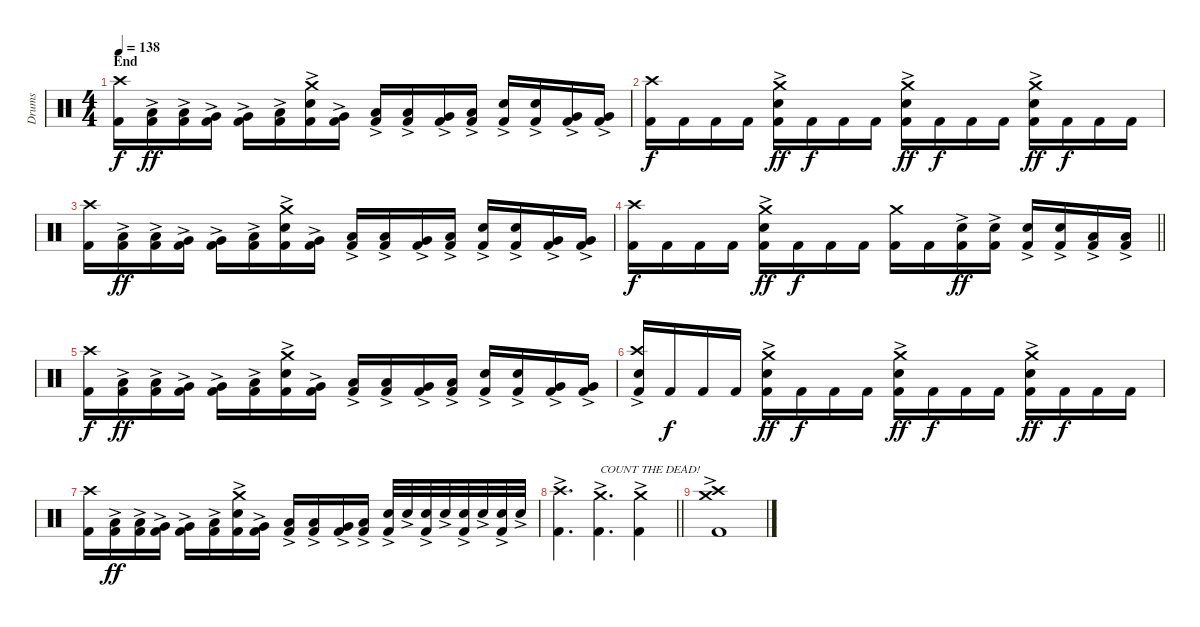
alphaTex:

\track ("Drums" "Drums") {instrument percussion}
\staff {score}
\articulation defaults
\ts (4 4)
\section ("" "End")
\tempo 138
\clef neutral
\ks c
("Kick (hit) 2" "Crash high (hit)").16{dy f} ("Kick (hit) 2" "Low Tom (hit)"{ac}).16{dy ff} ("Kick (hit) 2" "Low Tom (hit)"{ac}).16 ("Kick (hit) 2" "Very Low Tom (hit)"{ac}).16 ("Kick (hit) 2" "Very Low Tom (hit)"{ac}).16 ("Kick (hit) 2" "Low Floor Tom (hit)"{ac}).16 ("Kick (hit) 2" "Snare (hit) 2"{ac} "Crash medium (hit)").16 ("Kick (hit) 2" "Very Low Tom (hit)"{ac}).16 ("Kick (hit) 2" "Low Floor Tom (hit)"{ac}).16 ("Kick (hit) 2" "Low Floor Tom (hit)"{ac}).16 ("Kick (hit) 2" "Very Low Tom (hit)"{ac}).16 ("Kick (hit) 2" "Low Floor Tom (hit)"{ac}).16 ("Kick (hit) 2" "Snare (hit) 2"{ac}).16 ("Kick (hit) 2" "Snare (hit) 2"{ac}).16 ("Kick (hit) 2" "Very Low Tom (hit)"{ac}).16 ("Kick (hit) 2" "Very Low Tom (hit)"{ac}).16 |
("Kick (hit) 2" "Crash high (hit)").16{dy f} "Kick (hit) 2".16 "Kick (hit) 2".16 "Kick (hit) 2".16 ("Kick (hit) 2" "Snare (hit) 2"{ac} "Crash medium (hit)").16{dy ff} "Kick (hit) 2".16{dy f} "Kick (hit) 2".16 "Kick (hit) 2".16 ("Kick (hit) 2" "Snare (hit) 2"{ac} "Crash medium (hit)").16{dy ff} "Kick (hit) 2".16{dy f} "Kick (hit) 2".16 "Kick (hit) 2".16 ("Kick (hit) 2" "Snare (hit) 2"{ac} "Crash medium (hit)").16{dy ff} "Kick (hit) 2".16{dy f} "Kick (hit) 2".16 "Kick (hit) 2".16 |
("Kick (hit) 2" "Crash high (hit)").16 ("Kick (hit) 2" "Low Tom (hit)"{ac}).16{dy ff} ("Kick (hit) 2" "Low Tom (hit)"{ac}).16 ("Kick (hit) 2" "Very Low Tom (hit)"{ac}).16 ("Kick (hit) 2" "Very Low Tom (hit)"{ac}).16 ("Kick (hit) 2" "Low Floor Tom (hit)"{ac}).16 ("Kick (hit) 2" "Snare (hit) 2"{ac} "Crash medium (hit)").16 ("Kick (hit) 2" "Very Low Tom (hit)"{ac}).16 ("Kick (hit) 2" "Low Floor Tom (hit)"{ac}).16 ("Kick (hit) 2" "Low Floor Tom (hit)"{ac}).16 ("Kick (hit) 2" "Very Low Tom (hit)"{ac}).16 ("Kick (hit) 2" "Low Floor Tom (hit)"{ac}).16 ("Kick (hit) 2" "Snare (hit) 2"{ac}).16 ("Kick (hit) 2" "Snare (hit) 2"{ac}).16 ("Kick (hit) 2" "Very Low Tom (hit)"{ac}).16 ("Kick (hit) 2" "Very Low Tom (hit)"{ac}).16 |
\barLineRight lightlight
("Kick (hit) 2" "Crash high (hit)").16{dy f} "Kick (hit) 2".16 "Kick (hit) 2".16 "Kick (hit) 2".16 ("Kick (hit) 2" "Snare (hit) 2"{ac} "Crash medium (hit)").16{dy ff} "Kick (hit) 2".16{dy f} "Kick (hit) 2".16 "Kick (hit) 2".16 ("Kick (hit) 2" "Crash medium (hit)").16 "Kick (hit) 2".16 ("Kick (hit) 2" "Snare (hit) 2"{ac}).16{dy ff} ("Kick (hit) 2" "Snare (hit) 2"{ac}).16 ("Kick (hit) 2" "Snare (hit) 2"{ac}).16 ("Kick (hit) 2" "Snare (hit) 2"{ac}).16 ("Kick (hit) 2" "Low Tom (hit)"{ac}).16 ("Kick (hit) 2" "Low Tom (hit)"{ac}).16 |
\section ("" "")
("Kick (hit) 2" "Crash high (hit)").16{dy f} ("Kick (hit) 2" "Low Tom (hit)"{ac}).16{dy ff} ("Kick (hit) 2" "Low Tom (hit)"{ac}).16 ("Kick (hit) 2" "Very Low Tom (hit)"{ac}).16 ("Kick (hit) 2" "Very Low Tom (hit)"{ac}).16 ("Kick (hit) 2" "Low Floor Tom (hit)"{ac}).16 ("Kick (hit) 2" "Snare (hit) 2"{ac} "Crash medium (hit)").16 ("Kick (hit) 2" "Very Low Tom (hit)"{ac}).16 ("Kick (hit) 2" "Low Floor Tom (hit)"{ac}).16 ("Kick (hit) 2" "Low Floor Tom (hit)"{ac}).16 ("Kick (hit) 2" "Very Low Tom (hit)"{ac}).16 ("Kick (hit) 2" "Low Floor Tom (hit)"{ac}).16 ("Kick (hit) 2" "Snare (hit) 2"{ac}).16 ("Kick (hit) 2" "Snare (hit) 2"{ac}).16 ("Kick (hit) 2" "Very Low Tom (hit)"{ac}).16 ("Kick (hit) 2" "Very Low Tom (hit)"{ac}).16 |
("Kick (hit) 2" "Snare (hit) 2"{ac} "Crash high (hit)").16 "Kick (hit) 2".16{dy f} "Kick (hit) 2".16 "Kick (hit) 2".16 ("Kick (hit) 2" "Snare (hit) 2"{ac} "Crash medium (hit)").16{dy ff} "Kick (hit) 2".16{dy f} "Kick (hit) 2".16 "Kick (hit) 2".16 ("Kick (hit) 2" "Snare (hit) 2"{ac} "Crash medium (hit)").16{dy ff} "Kick (hit) 2".16{dy f} "Kick (hit) 2".16 "Kick (hit) 2".16 ("Kick (hit) 2" "Snare (hit) 2"{ac} "Crash medium (hit)").16{dy ff} "Kick (hit) 2".16{dy f} "Kick (hit) 2".16 "Kick (hit) 2".16 |
("Kick (hit) 2" "Crash high (hit)").16 ("Kick (hit) 2" "Low Tom (hit)"{ac}).16{dy ff} ("Kick (hit) 2" "Low Tom (hit)"{ac}).16 ("Kick (hit) 2" "Very Low Tom (hit)"{ac}).16 ("Kick (hit) 2" "Very Low Tom (hit)"{ac}).16 ("Kick (hit) 2" "Low Floor Tom (hit)"{ac}).16 ("Kick (hit) 2" "Snare (hit) 2"{ac} "Crash medium (hit)").16 ("Kick (hit) 2" "Very Low Tom (hit)"{ac}).16 ("Kick (hit) 2" "Low Floor Tom (hit)"{ac}).16 ("Kick (hit) 2" "Low Floor Tom (hit)"{ac}).16 ("Kick (hit) 2" "Very Low Tom (hit)"{ac}).16 ("Kick (hit) 2" "Low Floor Tom (hit)"{ac}).16 ("Kick (hit) 2" "Snare (hit) 2"{ac}).32 "Snare (hit) 2"{ac}.32 ("Kick (hit) 2" "Snare (hit) 2"{ac}).32 "Snare (hit) 2"{ac}.32 ("Kick (hit) 2" "Snare (hit) 2"{ac}).32 "Snare (hit) 2"{ac}.32 ("Kick (hit) 2" "Snare (hit) 2"{ac}).32 "Snare (hit) 2"{ac}.32 |
\barLineRight lightlight
("Kick (hit) 2"{ac} "Crash high (hit)").4{d} ("Kick (hit) 2"{ac} "Crash medium (hit)").4{d txt "COUNT THE DEAD!"} ("Kick (hit) 2"{ac} "Crash medium (hit)").4 |
\section ("" "")
("Kick (hit) 2"{ac} "Crash medium (hit)" "Crash high (hit)").1
